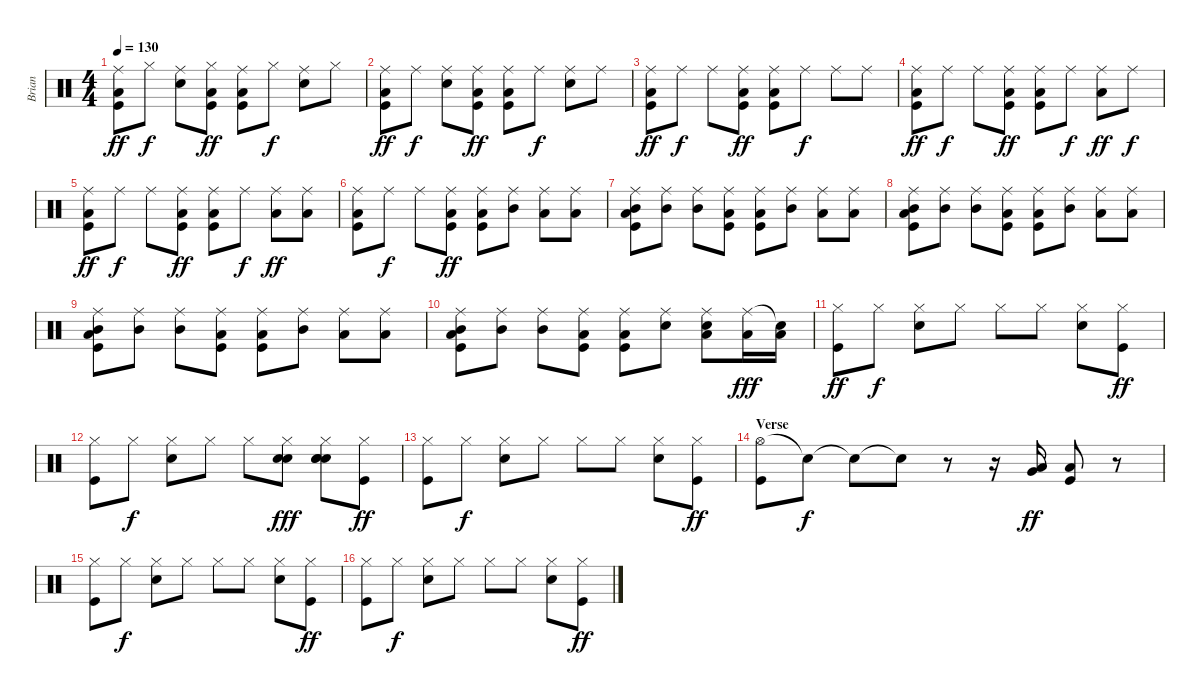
\track ("Brian" "Brian") {instrument percussion}
\staff {score}
\articulation defaults
\ts (4 4)
\tempo 130
\clef neutral
\ks c
("Ride (middle)" "Low Tom (hit)" "Kick (hit)").8{dy ff} "Hi-Hat (closed)".8{dy f} ("Ride (middle)" "Electric Snare (hit)").8 ("Hi-Hat (closed)" "Low Tom (hit)" "Kick (hit)").8{dy ff} ("Ride (middle)" "Low Tom (hit)" "Kick (hit)").8 "Hi-Hat (closed)".8{dy f} ("Ride (middle)" "Electric Snare (hit)").8 "Hi-Hat (closed)".8 |
("Ride (middle)" "Low Tom (hit)" "Kick (hit)").8{dy ff} "Ride (middle)".8{dy f} ("Ride (middle)" "Electric Snare (hit)").8 ("Ride (middle)" "Low Tom (hit)" "Kick (hit)").8{dy ff} ("Ride (middle)" "Low Tom (hit)" "Kick (hit)").8 "Ride (middle)".8{dy f} ("Ride (middle)" "Electric Snare (hit)").8 "Ride (middle)".8 |
("Ride (middle)" "Low Tom (hit)" "Kick (hit)").8{dy ff} "Ride (middle)".8{dy f} "Ride (middle)".8 ("Ride (middle)" "Low Tom (hit)" "Kick (hit)").8{dy ff} ("Ride (middle)" "Low Tom (hit)" "Kick (hit)").8 "Ride (middle)".8{dy f} "Ride (middle)".8 "Ride (middle)".8 |
("Ride (middle)" "Low Tom (hit)" "Kick (hit)").8{dy ff} "Ride (middle)".8{dy f} "Ride (middle)".8 ("Ride (middle)" "Low Tom (hit)" "Kick (hit)").8{dy ff} ("Ride (middle)" "Low Tom (hit)" "Kick (hit)").8 "Ride (middle)".8{dy f} ("Ride (middle)" "Low Tom (hit)").8{dy ff} "Ride (middle)".8{dy f} |
("Ride (middle)" "Low Tom (hit)" "Kick (hit)").8{dy ff} "Ride (middle)".8{dy f} "Ride (middle)".8 ("Ride (middle)" "Low Tom (hit)" "Kick (hit)").8{dy ff} ("Ride (middle)" "Low Tom (hit)" "Kick (hit)").8 "Ride (middle)".8{dy f} ("Ride (middle)" "Low Tom (hit)").8{dy ff} ("Ride (middle)" "Low Tom (hit)").8 |
("Ride (middle)" "Low Tom (hit)" "Kick (hit)").8 "Ride (middle)".8{dy f} "Ride (middle)".8 ("Ride (middle)" "Low Tom (hit)" "Kick (hit)").8{dy ff} ("Ride (middle)" "Low Tom (hit)" "Kick (hit)").8 ("Ride (middle)" "Mid Tom (hit)").8 ("Ride (middle)" "Low Tom (hit)").8 ("Ride (middle)" "Low Tom (hit)").8 |
("Ride (middle)" "Mid Tom (hit)" "Low Tom (hit)" "Kick (hit)").8 ("Ride (middle)" "Mid Tom (hit)").8 ("Ride (middle)" "Mid Tom (hit)").8 ("Ride (middle)" "Low Tom (hit)" "Kick (hit)").8 ("Ride (middle)" "Low Tom (hit)" "Kick (hit)").8 ("Ride (middle)" "Mid Tom (hit)").8 ("Ride (middle)" "Low Tom (hit)").8 ("Ride (middle)" "Low Tom (hit)").8 |
("Ride (middle)" "Mid Tom (hit)" "Low Tom (hit)" "Kick (hit)").8 ("Ride (middle)" "Mid Tom (hit)").8 ("Ride (middle)" "Mid Tom (hit)").8 ("Ride (middle)" "Low Tom (hit)" "Kick (hit)").8 ("Ride (middle)" "Low Tom (hit)" "Kick (hit)").8 ("Ride (middle)" "Mid Tom (hit)").8 ("Ride (middle)" "Low Tom (hit)").8 ("Ride (middle)" "Low Tom (hit)").8 |
("Ride (middle)" "Mid Tom (hit)" "Low Tom (hit)" "Kick (hit)").8 ("Ride (middle)" "Mid Tom (hit)").8 ("Ride (middle)" "Mid Tom (hit)").8 ("Ride (middle)" "Low Tom (hit)" "Kick (hit)").8 ("Ride (middle)" "Low Tom (hit)" "Kick (hit)").8 ("Ride (middle)" "Mid Tom (hit)").8 ("Ride (middle)" "Low Tom (hit)").8 ("Ride (middle)" "Low Tom (hit)").8 |
("Ride (middle)" "Mid Tom (hit)" "Low Tom (hit)" "Kick (hit)").8 ("Ride (middle)" "Mid Tom (hit)").8 ("Ride (middle)" "Mid Tom (hit)").8 ("Ride (middle)" "Low Tom (hit)" "Kick (hit)").8 ("Ride (middle)" "Low Tom (hit)" "Kick (hit)").8 ("Ride (middle)" "Electric Snare (hit)").8 ("Ride (middle)" "Low Tom (hit)" "Electric Snare (hit)").8 ("Ride (middle)" "Low Tom (hit)").16{dy fff} ("Snare (hit)"{t} "Low Tom (hit)").16 |
("Hi-Hat (closed)" "Kick (hit)").8{dy ff} "Hi-Hat (closed)".8{dy f} ("Hi-Hat (closed)" "Electric Snare (hit)").8 "Hi-Hat (closed)".8 "Hi-Hat (closed)".8 "Hi-Hat (closed)".8 ("Hi-Hat (closed)" "Electric Snare (hit)").8 ("Hi-Hat (closed)" "Kick (hit)").8{dy ff} |
("Hi-Hat (closed)" "Kick (hit)").8 "Hi-Hat (closed)".8{dy f} ("Hi-Hat (closed)" "Electric Snare (hit)").8 "Hi-Hat (closed)".8 "Hi-Hat (closed)".8 ("Hand Clap (hit)" "Hi-Hat (closed)" "Hand Clap (hit)").8{dy fff} ("Hand Clap (hit)" "Hi-Hat (closed)" "Hand Clap (hit)" "Electric Snare (hit)").8 ("Hi-Hat (closed)" "Kick (hit)").8{dy ff} |
("Hi-Hat (closed)" "Kick (hit)").8 "Hi-Hat (closed)".8{dy f} ("Hi-Hat (closed)" "Electric Snare (hit)").8 "Hi-Hat (closed)".8 "Hi-Hat (closed)".8 "Hi-Hat (closed)".8 ("Hi-Hat (closed)" "Electric Snare (hit)").8 ("Hi-Hat (closed)" "Kick (hit)").8{dy ff} |
\section ("" "Verse")
("Hi-Hat (open)" "Kick (hit)").8 "Snare (hit)"{t}.8{dy f} "Snare (hit)"{t}.8 "Snare (hit)"{t}.8 r.8 r.16 ("Low Floor Tom (hit)" "Very Low Tom (hit)").16{dy ff} ("Low Tom (hit)" "Kick (hit)").8 r.8 |
("Hi-Hat (closed)" "Kick (hit)").8 "Hi-Hat (closed)".8{dy f} ("Hi-Hat (closed)" "Electric Snare (hit)").8 "Hi-Hat (closed)".8 "Hi-Hat (closed)".8 "Hi-Hat (closed)".8 ("Hi-Hat (closed)" "Electric Snare (hit)").8 ("Hi-Hat (closed)" "Kick (hit)").8{dy ff} |
("Hi-Hat (closed)" "Kick (hit)").8 "Hi-Hat (closed)".8{dy f} ("Hi-Hat (closed)" "Electric Snare (hit)").8 "Hi-Hat (closed)".8 "Hi-Hat (closed)".8 "Hi-Hat (closed)".8 ("Hi-Hat (closed)" "Electric Snare (hit)").8 ("Hi-Hat (closed)" "Kick (hit)").8{dy ff}
